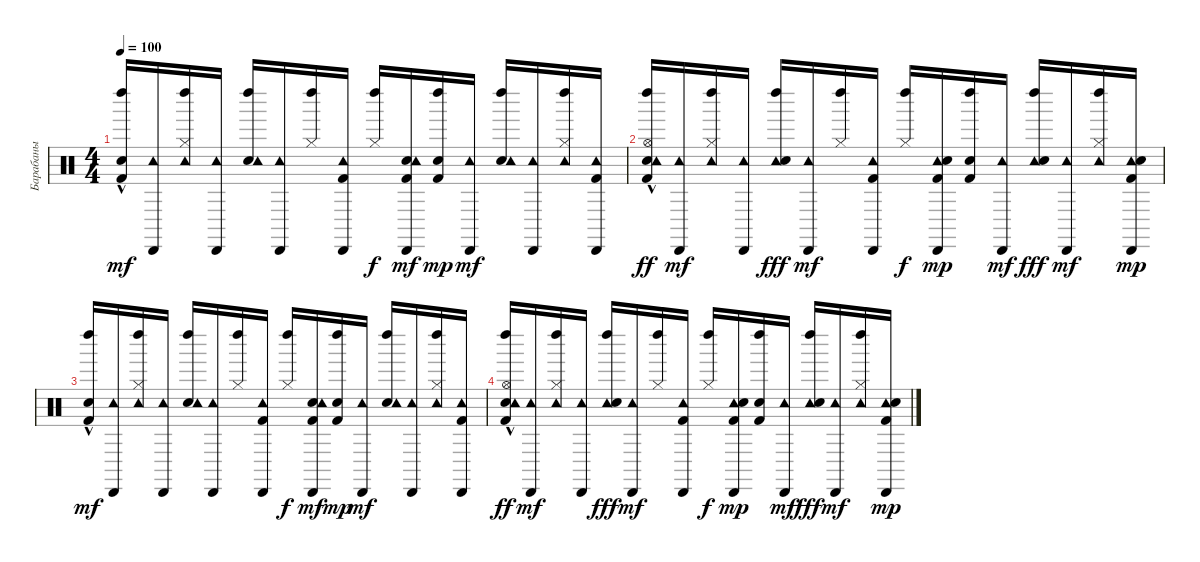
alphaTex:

\track ("Барабаны" "Барабаны") {instrument percussion}
\staff {score}
\articulation defaults
\ts (4 4)
\tempo 100
\clef neutral
\ks c
("Electric Snare (hit)"{hac} "Left Maraca (hit)" "Kick (hit) 2").16{dy mf balance 8} ("Cabasa (hit)" "Tambourine (hit)").16 ("Hi-Hat (closed)" "Left Maraca (hit)" "Tambourine (hit)").16 ("Cabasa (hit)" "Tambourine (hit)").16 ("Electric Snare (hit)" "Left Maraca (hit)" "Tambourine (hit)").16 ("Cabasa (hit)" "Tambourine (hit)").16 ("Hi-Hat (closed)" "Left Maraca (hit)").16 ("Cabasa (hit)" "Kick (hit) 2" "Tambourine (hit)").16 ("Hi-Hat (closed)" "Left Maraca (hit)").16{dy f} ("Electric Snare (hit)" "Cabasa (hit)" "Kick (hit) 2" "Tambourine (hit)").16{dy mf} ("Electric Snare (hit)" "Left Maraca (hit)" "Kick (hit) 2").16{dy mp} ("Cabasa (hit)" "Tambourine (hit)").16{dy mf} ("Electric Snare (hit)" "Left Maraca (hit)" "Tambourine (hit)").16 ("Cabasa (hit)" "Tambourine (hit)").16 ("Hi-Hat (closed)" "Left Maraca (hit)" "Tambourine (hit)").16 ("Cabasa (hit)" "Kick (hit) 2" "Tambourine (hit)").16 |
("Electric Snare (hit)"{hac} "Tambourine (hit)" "Hi-Hat (open)" "Kick (hit) 2" "Left Maraca (hit)").16{dy ff} ("Tambourine (hit)" "Cabasa (hit)").16{dy mf} ("Tambourine (hit)" "Hi-Hat (closed)" "Left Maraca (hit)").16 ("Tambourine (hit)" "Cabasa (hit)").16 ("Tambourine (hit)" "Electric Snare (hit)" "Left Maraca (hit)").16{dy fff} ("Tambourine (hit)" "Cabasa (hit)").16{dy mf} ("Hi-Hat (closed)" "Left Maraca (hit)").16 ("Tambourine (hit)" "Cabasa (hit)" "Kick (hit) 2").16 ("Hi-Hat (closed)" "Left Maraca (hit)").16{dy f} ("Tambourine (hit)" "Electric Snare (hit)" "Kick (hit) 2" "Cabasa (hit)").16{dy mp} ("Electric Snare (hit)" "Left Maraca (hit)" "Kick (hit) 2").16 ("Tambourine (hit)" "Cabasa (hit)").16{dy mf} ("Tambourine (hit)" "Electric Snare (hit)" "Left Maraca (hit)").16{dy fff} ("Tambourine (hit)" "Cabasa (hit)").16{dy mf} ("Tambourine (hit)" "Hi-Hat (closed)" "Left Maraca (hit)").16 ("Tambourine (hit)" "Electric Snare (hit)" "Kick (hit) 2" "Cabasa (hit)").16{dy mp} |
("Electric Snare (hit)"{hac} "Left Maraca (hit)" "Kick (hit) 2").16{dy mf balance 8} ("Cabasa (hit)" "Tambourine (hit)").16 ("Hi-Hat (closed)" "Left Maraca (hit)" "Tambourine (hit)").16 ("Cabasa (hit)" "Tambourine (hit)").16 ("Electric Snare (hit)" "Left Maraca (hit)" "Tambourine (hit)").16 ("Cabasa (hit)" "Tambourine (hit)").16 ("Hi-Hat (closed)" "Left Maraca (hit)").16 ("Cabasa (hit)" "Kick (hit) 2" "Tambourine (hit)").16 ("Hi-Hat (closed)" "Left Maraca (hit)").16{dy f} ("Electric Snare (hit)" "Cabasa (hit)" "Kick (hit) 2" "Tambourine (hit)").16{dy mf} ("Electric Snare (hit)" "Left Maraca (hit)" "Kick (hit) 2").16{dy mp} ("Cabasa (hit)" "Tambourine (hit)").16{dy mf} ("Electric Snare (hit)" "Left Maraca (hit)" "Tambourine (hit)").16 ("Cabasa (hit)" "Tambourine (hit)").16 ("Hi-Hat (closed)" "Left Maraca (hit)" "Tambourine (hit)").16 ("Cabasa (hit)" "Kick (hit) 2" "Tambourine (hit)").16 |
("Electric Snare (hit)"{hac} "Tambourine (hit)" "Hi-Hat (open)" "Kick (hit) 2" "Left Maraca (hit)").16{dy ff} ("Tambourine (hit)" "Cabasa (hit)").16{dy mf} ("Tambourine (hit)" "Hi-Hat (closed)" "Left Maraca (hit)").16 ("Tambourine (hit)" "Cabasa (hit)").16 ("Tambourine (hit)" "Electric Snare (hit)" "Left Maraca (hit)").16{dy fff} ("Tambourine (hit)" "Cabasa (hit)").16{dy mf} ("Hi-Hat (closed)" "Left Maraca (hit)").16 ("Tambourine (hit)" "Cabasa (hit)" "Kick (hit) 2").16 ("Hi-Hat (closed)" "Left Maraca (hit)").16{dy f} ("Tambourine (hit)" "Electric Snare (hit)" "Kick (hit) 2" "Cabasa (hit)").16{dy mp} ("Electric Snare (hit)" "Left Maraca (hit)" "Kick (hit) 2").16 ("Tambourine (hit)" "Cabasa (hit)").16{dy mf} ("Tambourine (hit)" "Electric Snare (hit)" "Left Maraca (hit)").16{dy fff} ("Tambourine (hit)" "Cabasa (hit)").16{dy mf} ("Tambourine (hit)" "Hi-Hat (closed)" "Left Maraca (hit)").16 ("Tambourine (hit)" "Electric Snare (hit)" "Kick (hit) 2" "Cabasa (hit)").16{dy mp}
